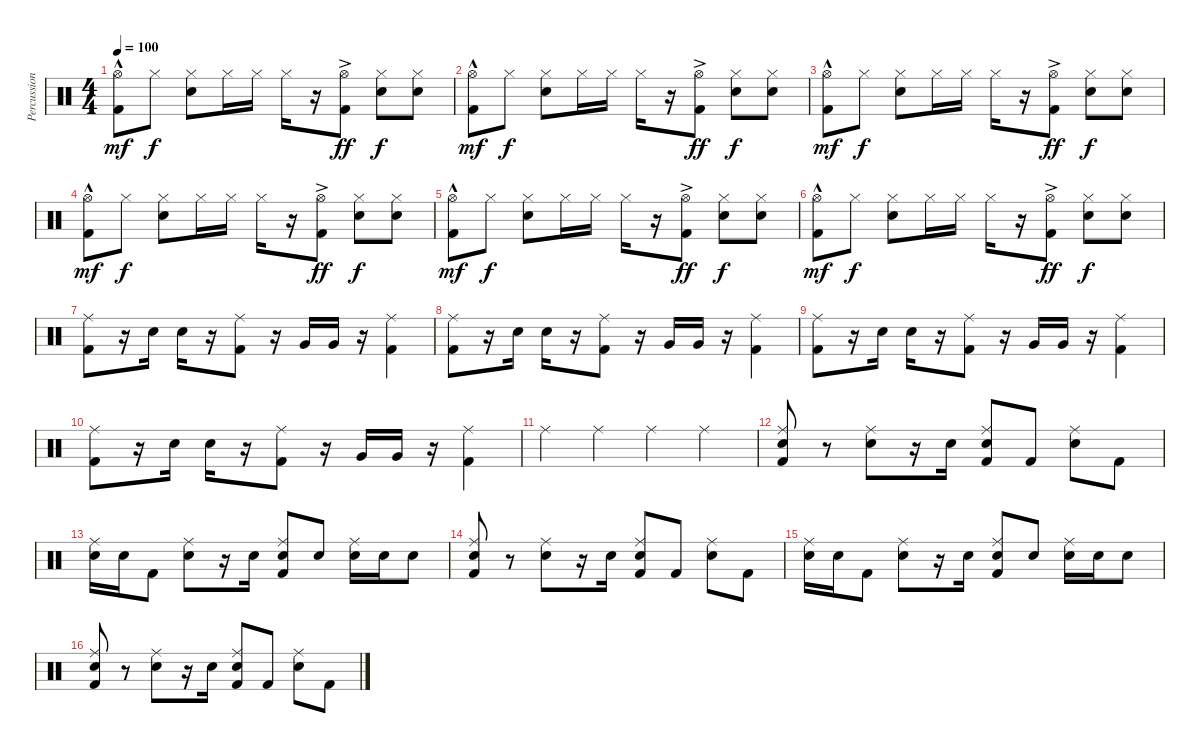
\track ("Percussion" "Percussion") {instrument percussion}
\staff {score}
\articulation defaults
\ts (4 4)
\tempo 100
\clef neutral
\ks c
("Hi-Hat (open)"{hac} "Kick (hit) 2"{hac}).8{dy mf} "Hi-Hat (closed)".8{dy f} ("Hi-Hat (closed)" "Snare (hit) 2").8 "Hi-Hat (closed)".16 "Hi-Hat (closed)".16 "Hi-Hat (closed)".16 r.16 ("Hi-Hat (open)"{ac} "Kick (hit) 2"{ac}).8{dy ff} ("Hi-Hat (closed)" "Snare (hit) 2").8{dy f} ("Hi-Hat (closed)" "Snare (hit) 2").8 |
("Hi-Hat (open)"{hac} "Kick (hit) 2"{hac}).8{dy mf} "Hi-Hat (closed)".8{dy f} ("Hi-Hat (closed)" "Snare (hit) 2").8 "Hi-Hat (closed)".16 "Hi-Hat (closed)".16 "Hi-Hat (closed)".16 r.16 ("Hi-Hat (open)"{ac} "Kick (hit) 2"{ac}).8{dy ff} ("Hi-Hat (closed)" "Snare (hit) 2").8{dy f} ("Hi-Hat (closed)" "Snare (hit) 2").8 |
("Hi-Hat (open)"{hac} "Kick (hit) 2"{hac}).8{dy mf} "Hi-Hat (closed)".8{dy f} ("Hi-Hat (closed)" "Snare (hit) 2").8 "Hi-Hat (closed)".16 "Hi-Hat (closed)".16 "Hi-Hat (closed)".16 r.16 ("Hi-Hat (open)"{ac} "Kick (hit) 2"{ac}).8{dy ff} ("Hi-Hat (closed)" "Snare (hit) 2").8{dy f} ("Hi-Hat (closed)" "Snare (hit) 2").8 |
("Hi-Hat (open)"{hac} "Kick (hit) 2"{hac}).8{dy mf} "Hi-Hat (closed)".8{dy f} ("Hi-Hat (closed)" "Snare (hit) 2").8 "Hi-Hat (closed)".16 "Hi-Hat (closed)".16 "Hi-Hat (closed)".16 r.16 ("Hi-Hat (open)"{ac} "Kick (hit) 2"{ac}).8{dy ff} ("Hi-Hat (closed)" "Snare (hit) 2").8{dy f} ("Hi-Hat (closed)" "Snare (hit) 2").8 |
("Hi-Hat (open)"{hac} "Kick (hit) 2"{hac}).8{dy mf} "Hi-Hat (closed)".8{dy f} ("Hi-Hat (closed)" "Snare (hit) 2").8 "Hi-Hat (closed)".16 "Hi-Hat (closed)".16 "Hi-Hat (closed)".16 r.16 ("Hi-Hat (open)"{ac} "Kick (hit) 2"{ac}).8{dy ff} ("Hi-Hat (closed)" "Snare (hit) 2").8{dy f} ("Hi-Hat (closed)" "Snare (hit) 2").8 |
("Hi-Hat (open)"{hac} "Kick (hit) 2"{hac}).8{dy mf} "Hi-Hat (closed)".8{dy f} ("Hi-Hat (closed)" "Snare (hit) 2").8 "Hi-Hat (closed)".16 "Hi-Hat (closed)".16 "Hi-Hat (closed)".16 r.16 ("Hi-Hat (open)"{ac} "Kick (hit) 2"{ac}).8{dy ff} ("Hi-Hat (closed)" "Snare (hit) 2").8{dy f} ("Hi-Hat (closed)" "Snare (hit) 2").8 |
("Ride (middle)" "Kick (hit) 2").8 r.16 "Snare (hit) 2".16 "Snare (hit) 2".16 r.16 ("Ride (middle)" "Kick (hit) 2").8 r.16 "Very Low Tom (hit)".16 "Very Low Tom (hit)".16 r.16 ("Ride (middle)" "Kick (hit) 2").4 |
("Ride (middle)" "Kick (hit) 2").8 r.16 "Snare (hit) 2".16 "Snare (hit) 2".16 r.16 ("Ride (middle)" "Kick (hit) 2").8 r.16 "Very Low Tom (hit)".16 "Very Low Tom (hit)".16 r.16 ("Ride (middle)" "Kick (hit) 2").4 |
("Ride (middle)" "Kick (hit) 2").8 r.16 "Snare (hit) 2".16 "Snare (hit) 2".16 r.16 ("Ride (middle)" "Kick (hit) 2").8 r.16 "Very Low Tom (hit)".16 "Very Low Tom (hit)".16 r.16 ("Ride (middle)" "Kick (hit) 2").4 |
("Ride (middle)" "Kick (hit) 2").8 r.16 "Snare (hit) 2".16 "Snare (hit) 2".16 r.16 ("Ride (middle)" "Kick (hit) 2").8 r.16 "Very Low Tom (hit)".16 "Very Low Tom (hit)".16 r.16 ("Ride (middle)" "Kick (hit) 2").4 |
"Ride (middle)".4 "Ride (middle)".4 "Ride (middle)".4 "Ride (middle)".4 |
("Ride (middle)" "Hand Clap (hit)" "Kick (hit) 2").8 r.8 ("Ride (middle)" "Snare (hit) 2").8 r.16 "Snare (hit) 2".16 ("Ride (middle)" "Hand Clap (hit)" "Kick (hit) 2").8 "Kick (hit) 2".8 ("Ride (middle)" "Snare (hit) 2").8 "Kick (hit) 2".8 |
("Ride (middle)" "Hand Clap (hit)").16 "Snare (hit) 2".16 "Kick (hit) 2".8 ("Ride (middle)" "Snare (hit) 2").8 r.16 "Snare (hit) 2".16 ("Ride (middle)" "Hand Clap (hit)" "Kick (hit) 2").8 "Snare (hit) 2".8 ("Ride (middle)" "Snare (hit) 2").16 "Snare (hit) 2".16 "Snare (hit) 2".8 |
("Ride (middle)" "Hand Clap (hit)" "Kick (hit) 2").8 r.8 ("Ride (middle)" "Snare (hit) 2").8 r.16 "Snare (hit) 2".16 ("Ride (middle)" "Hand Clap (hit)" "Kick (hit) 2").8 "Kick (hit) 2".8 ("Ride (middle)" "Snare (hit) 2").8 "Kick (hit) 2".8 |
("Ride (middle)" "Hand Clap (hit)").16 "Snare (hit) 2".16 "Kick (hit) 2".8 ("Ride (middle)" "Snare (hit) 2").8 r.16 "Snare (hit) 2".16 ("Ride (middle)" "Hand Clap (hit)" "Kick (hit) 2").8 "Snare (hit) 2".8 ("Ride (middle)" "Snare (hit) 2").16 "Snare (hit) 2".16 "Snare (hit) 2".8 |
("Ride (middle)" "Hand Clap (hit)" "Kick (hit) 2").8 r.8 ("Ride (middle)" "Snare (hit) 2").8 r.16 "Snare (hit) 2".16 ("Ride (middle)" "Hand Clap (hit)" "Kick (hit) 2").8 "Kick (hit) 2".8 ("Ride (middle)" "Snare (hit) 2").8 "Kick (hit) 2".8
